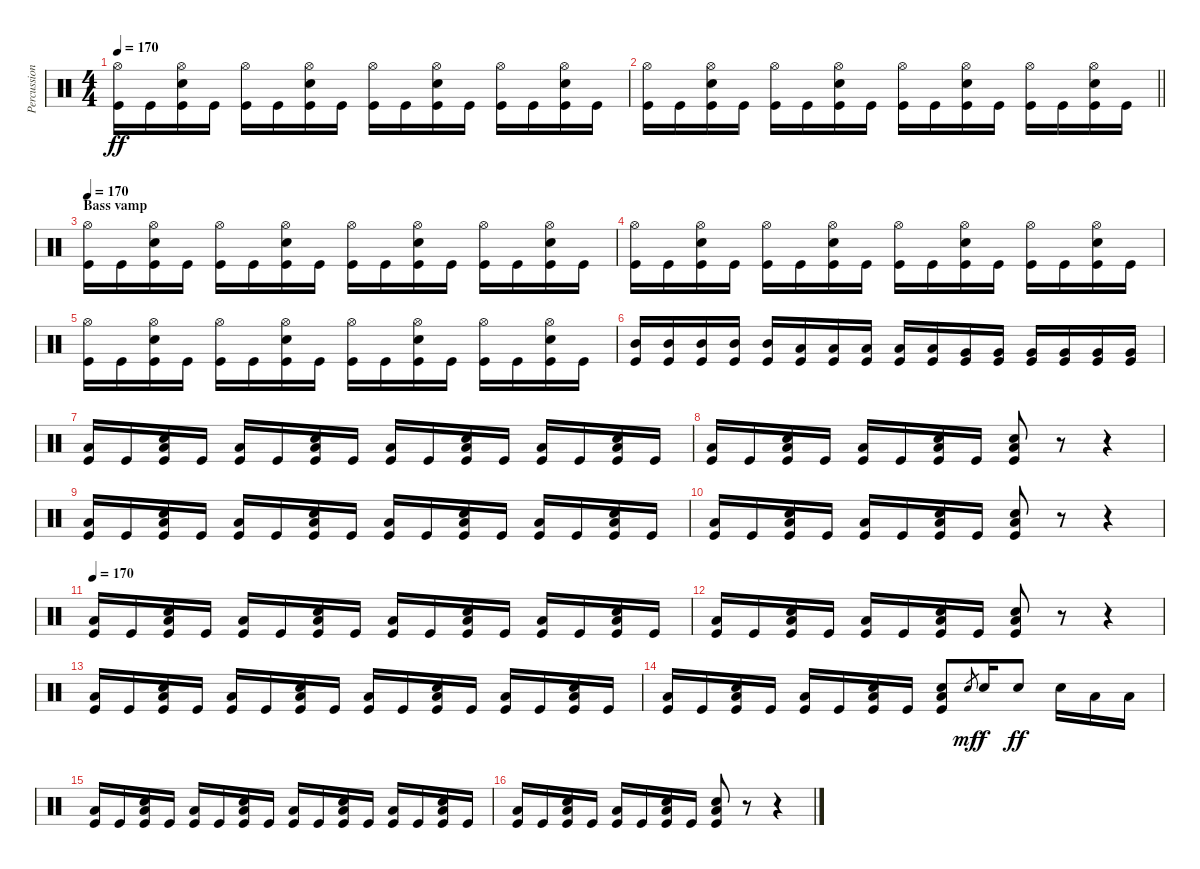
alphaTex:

\track ("Percussion" "Percussion") {instrument percussion}
\staff {score}
\articulation defaults
\ts (4 4)
\tempo 170
\clef neutral
\ks c
("Hi-Hat (open)" "Kick (hit)").16{dy ff} "Kick (hit)".16 ("Hi-Hat (open)" "Snare (hit) 2" "Kick (hit)").16 "Kick (hit)".16 ("Hi-Hat (open)" "Kick (hit)").16 "Kick (hit)".16 ("Hi-Hat (open)" "Snare (hit) 2" "Kick (hit)").16 "Kick (hit)".16 ("Hi-Hat (open)" "Kick (hit)").16 "Kick (hit)".16 ("Hi-Hat (open)" "Snare (hit) 2" "Kick (hit)").16 "Kick (hit)".16 ("Hi-Hat (open)" "Kick (hit)").16 "Kick (hit)".16 ("Hi-Hat (open)" "Snare (hit) 2" "Kick (hit)").16 "Kick (hit)".16 |
\barLineRight lightlight
("Hi-Hat (open)" "Kick (hit)").16 "Kick (hit)".16 ("Hi-Hat (open)" "Snare (hit) 2" "Kick (hit)").16 "Kick (hit)".16 ("Hi-Hat (open)" "Kick (hit)").16 "Kick (hit)".16 ("Hi-Hat (open)" "Snare (hit) 2" "Kick (hit)").16 "Kick (hit)".16 ("Hi-Hat (open)" "Kick (hit)").16 "Kick (hit)".16 ("Hi-Hat (open)" "Snare (hit) 2" "Kick (hit)").16 "Kick (hit)".16 ("Hi-Hat (open)" "Kick (hit)").16 "Kick (hit)".16 ("Hi-Hat (open)" "Snare (hit) 2" "Kick (hit)").16 "Kick (hit)".16 |
\section ("" "Bass vamp")
\tempo 170
("Hi-Hat (open)" "Kick (hit)").16 "Kick (hit)".16 ("Hi-Hat (open)" "Snare (hit) 2" "Kick (hit)").16 "Kick (hit)".16 ("Hi-Hat (open)" "Kick (hit)").16 "Kick (hit)".16 ("Hi-Hat (open)" "Snare (hit) 2" "Kick (hit)").16 "Kick (hit)".16 ("Hi-Hat (open)" "Kick (hit)").16 "Kick (hit)".16 ("Hi-Hat (open)" "Snare (hit) 2" "Kick (hit)").16 "Kick (hit)".16 ("Hi-Hat (open)" "Kick (hit)").16 "Kick (hit)".16 ("Hi-Hat (open)" "Snare (hit) 2" "Kick (hit)").16 "Kick (hit)".16 |
("Hi-Hat (open)" "Kick (hit)").16 "Kick (hit)".16 ("Hi-Hat (open)" "Snare (hit) 2" "Kick (hit)").16 "Kick (hit)".16 ("Hi-Hat (open)" "Kick (hit)").16 "Kick (hit)".16 ("Hi-Hat (open)" "Snare (hit) 2" "Kick (hit)").16 "Kick (hit)".16 ("Hi-Hat (open)" "Kick (hit)").16 "Kick (hit)".16 ("Hi-Hat (open)" "Snare (hit) 2" "Kick (hit)").16 "Kick (hit)".16 ("Hi-Hat (open)" "Kick (hit)").16 "Kick (hit)".16 ("Hi-Hat (open)" "Snare (hit) 2" "Kick (hit)").16 "Kick (hit)".16 |
("Hi-Hat (open)" "Kick (hit)").16 "Kick (hit)".16 ("Hi-Hat (open)" "Snare (hit) 2" "Kick (hit)").16 "Kick (hit)".16 ("Hi-Hat (open)" "Kick (hit)").16 "Kick (hit)".16 ("Hi-Hat (open)" "Snare (hit) 2" "Kick (hit)").16 "Kick (hit)".16 ("Hi-Hat (open)" "Kick (hit)").16 "Kick (hit)".16 ("Hi-Hat (open)" "Snare (hit) 2" "Kick (hit)").16 "Kick (hit)".16 ("Hi-Hat (open)" "Kick (hit)").16 "Kick (hit)".16 ("Hi-Hat (open)" "Snare (hit) 2" "Kick (hit)").16 "Kick (hit)".16 |
("Mid Tom (hit)" "Kick (hit)").16 ("Mid Tom (hit)" "Kick (hit)").16 ("Mid Tom (hit)" "Kick (hit)").16 ("Mid Tom (hit)" "Kick (hit)").16 ("Mid Tom (hit)" "Kick (hit)").16 ("Low Tom (hit)" "Kick (hit)").16 ("Low Tom (hit)" "Kick (hit)").16 ("Low Tom (hit)" "Kick (hit)").16 ("Low Tom (hit)" "Kick (hit)").16 ("Low Tom (hit)" "Kick (hit)").16 ("Very Low Tom (hit)" "Kick (hit)").16 ("Very Low Tom (hit)" "Kick (hit)").16 ("Very Low Tom (hit)" "Kick (hit)").16 ("Very Low Tom (hit)" "Kick (hit)").16 ("Very Low Tom (hit)" "Kick (hit)").16 ("Very Low Tom (hit)" "Kick (hit)").16 |
("Low Floor Tom (hit)" "Kick (hit)").16 "Kick (hit)".16 ("Low Floor Tom (hit)" "Snare (hit) 2" "Kick (hit)").16 "Kick (hit)".16 ("Low Floor Tom (hit)" "Kick (hit)").16 "Kick (hit)".16 ("Low Floor Tom (hit)" "Snare (hit) 2" "Kick (hit)").16 "Kick (hit)".16 ("Low Floor Tom (hit)" "Kick (hit)").16 "Kick (hit)".16 ("Low Floor Tom (hit)" "Snare (hit) 2" "Kick (hit)").16 "Kick (hit)".16 ("Low Floor Tom (hit)" "Kick (hit)").16 "Kick (hit)".16 ("Low Floor Tom (hit)" "Snare (hit) 2" "Kick (hit)").16 "Kick (hit)".16 |
("Low Floor Tom (hit)" "Kick (hit)").16 "Kick (hit)".16 ("Low Floor Tom (hit)" "Snare (hit) 2" "Kick (hit)").16 "Kick (hit)".16 ("Low Floor Tom (hit)" "Kick (hit)").16 "Kick (hit)".16 ("Low Floor Tom (hit)" "Snare (hit) 2" "Kick (hit)").16 "Kick (hit)".16 ("Low Floor Tom (hit)" "Snare (hit) 2" "Kick (hit)").8 r.8 r.4 |
("Low Floor Tom (hit)" "Kick (hit)").16 "Kick (hit)".16 ("Low Floor Tom (hit)" "Snare (hit) 2" "Kick (hit)").16 "Kick (hit)".16 ("Low Floor Tom (hit)" "Kick (hit)").16 "Kick (hit)".16 ("Low Floor Tom (hit)" "Snare (hit) 2" "Kick (hit)").16 "Kick (hit)".16 ("Low Floor Tom (hit)" "Kick (hit)").16 "Kick (hit)".16 ("Low Floor Tom (hit)" "Snare (hit) 2" "Kick (hit)").16 "Kick (hit)".16 ("Low Floor Tom (hit)" "Kick (hit)").16 "Kick (hit)".16 ("Low Floor Tom (hit)" "Snare (hit) 2" "Kick (hit)").16 "Kick (hit)".16 |
("Low Floor Tom (hit)" "Kick (hit)").16 "Kick (hit)".16 ("Low Floor Tom (hit)" "Snare (hit) 2" "Kick (hit)").16 "Kick (hit)".16 ("Low Floor Tom (hit)" "Kick (hit)").16 "Kick (hit)".16 ("Low Floor Tom (hit)" "Snare (hit) 2" "Kick (hit)").16 "Kick (hit)".16 ("Low Floor Tom (hit)" "Snare (hit) 2" "Kick (hit)").8 r.8 r.4 |
\tempo 170
("Low Floor Tom (hit)" "Kick (hit)").16 "Kick (hit)".16 ("Low Floor Tom (hit)" "Snare (hit) 2" "Kick (hit)").16 "Kick (hit)".16 ("Low Floor Tom (hit)" "Kick (hit)").16 "Kick (hit)".16 ("Low Floor Tom (hit)" "Snare (hit) 2" "Kick (hit)").16 "Kick (hit)".16 ("Low Floor Tom (hit)" "Kick (hit)").16 "Kick (hit)".16 ("Low Floor Tom (hit)" "Snare (hit) 2" "Kick (hit)").16 "Kick (hit)".16 ("Low Floor Tom (hit)" "Kick (hit)").16 "Kick (hit)".16 ("Low Floor Tom (hit)" "Snare (hit) 2" "Kick (hit)").16 "Kick (hit)".16 |
("Low Floor Tom (hit)" "Kick (hit)").16 "Kick (hit)".16 ("Low Floor Tom (hit)" "Snare (hit) 2" "Kick (hit)").16 "Kick (hit)".16 ("Low Floor Tom (hit)" "Kick (hit)").16 "Kick (hit)".16 ("Low Floor Tom (hit)" "Snare (hit) 2" "Kick (hit)").16 "Kick (hit)".16 ("Low Floor Tom (hit)" "Snare (hit) 2" "Kick (hit)").8 r.8 r.4 |
("Low Floor Tom (hit)" "Kick (hit)").16 "Kick (hit)".16 ("Low Floor Tom (hit)" "Snare (hit) 2" "Kick (hit)").16 "Kick (hit)".16 ("Low Floor Tom (hit)" "Kick (hit)").16 "Kick (hit)".16 ("Low Floor Tom (hit)" "Snare (hit) 2" "Kick (hit)").16 "Kick (hit)".16 ("Low Floor Tom (hit)" "Kick (hit)").16 "Kick (hit)".16 ("Low Floor Tom (hit)" "Snare (hit) 2" "Kick (hit)").16 "Kick (hit)".16 ("Low Floor Tom (hit)" "Kick (hit)").16 "Kick (hit)".16 ("Low Floor Tom (hit)" "Snare (hit) 2" "Kick (hit)").16 "Kick (hit)".16 |
("Low Floor Tom (hit)" "Kick (hit)").16 "Kick (hit)".16 ("Low Floor Tom (hit)" "Snare (hit) 2" "Kick (hit)").16 "Kick (hit)".16 ("Low Floor Tom (hit)" "Kick (hit)").16 "Kick (hit)".16 ("Low Floor Tom (hit)" "Snare (hit) 2" "Kick (hit)").16 "Kick (hit)".16 ("Low Floor Tom (hit)" "Snare (hit) 2" "Kick (hit)").8 "Snare (hit) 2".8{gr dy mf} "Snare (hit) 2".16{dy f} "Snare (hit) 2".8{dy ff} "Snare (hit) 2".16 "Low Tom (hit)".16 "Low Tom (hit)".16 |
("Low Floor Tom (hit)" "Kick (hit)").16 "Kick (hit)".16 ("Low Floor Tom (hit)" "Snare (hit) 2" "Kick (hit)").16 "Kick (hit)".16 ("Low Floor Tom (hit)" "Kick (hit)").16 "Kick (hit)".16 ("Low Floor Tom (hit)" "Snare (hit) 2" "Kick (hit)").16 "Kick (hit)".16 ("Low Floor Tom (hit)" "Kick (hit)").16 "Kick (hit)".16 ("Low Floor Tom (hit)" "Snare (hit) 2" "Kick (hit)").16 "Kick (hit)".16 ("Low Floor Tom (hit)" "Kick (hit)").16 "Kick (hit)".16 ("Low Floor Tom (hit)" "Snare (hit) 2" "Kick (hit)").16 "Kick (hit)".16 |
("Low Floor Tom (hit)" "Kick (hit)").16 "Kick (hit)".16 ("Low Floor Tom (hit)" "Snare (hit) 2" "Kick (hit)").16 "Kick (hit)".16 ("Low Floor Tom (hit)" "Kick (hit)").16 "Kick (hit)".16 ("Low Floor Tom (hit)" "Snare (hit) 2" "Kick (hit)").16 "Kick (hit)".16 ("Low Floor Tom (hit)" "Snare (hit) 2" "Kick (hit)").8 r.8 r.4
